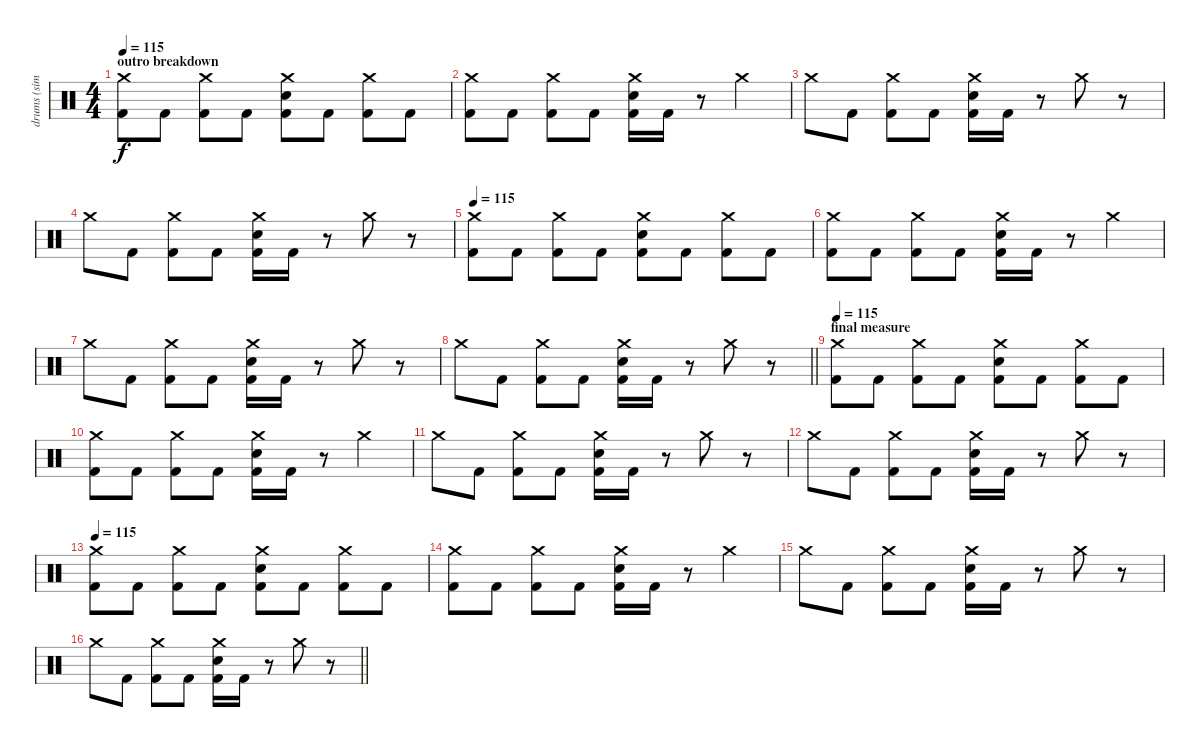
\track ("drums (simple)" "drums (sim") {instrument percussion}
\staff {score}
\articulation defaults
\ts (4 4)
\section ("" "outro breakdown")
\tempo 110
\tempo 115
\clef neutral
\ks c
("Crash medium (hit)" "Kick (hit) 2").8{dy f} "Kick (hit) 2".8 ("Crash medium (hit)" "Kick (hit) 2").8 "Kick (hit) 2".8 ("Crash medium (hit)" "Electric Snare (hit)" "Kick (hit) 2").8 "Kick (hit) 2".8 ("Crash medium (hit)" "Kick (hit) 2").8 "Kick (hit) 2".8 |
("Crash medium (hit)" "Kick (hit) 2").8 "Kick (hit) 2".8 ("Crash medium (hit)" "Kick (hit) 2").8 "Kick (hit) 2".8 ("Crash medium (hit)" "Electric Snare (hit)" "Kick (hit) 2").16 "Kick (hit) 2".16 r.8 "Crash medium (hit)".4 |
"Crash medium (hit)".8 "Kick (hit) 2".8 ("Crash medium (hit)" "Kick (hit) 2").8 "Kick (hit) 2".8 ("Crash medium (hit)" "Electric Snare (hit)" "Kick (hit) 2").16 "Kick (hit) 2".16 r.8 "Crash medium (hit)".8 r.8 |
"Crash medium (hit)".8 "Kick (hit) 2".8 ("Crash medium (hit)" "Kick (hit) 2").8 "Kick (hit) 2".8 ("Crash medium (hit)" "Electric Snare (hit)" "Kick (hit) 2").16 "Kick (hit) 2".16 r.8 "Crash medium (hit)".8 r.8 |
\tempo 115
("Crash medium (hit)" "Kick (hit) 2").8 "Kick (hit) 2".8 ("Crash medium (hit)" "Kick (hit) 2").8 "Kick (hit) 2".8 ("Crash medium (hit)" "Electric Snare (hit)" "Kick (hit) 2").8 "Kick (hit) 2".8 ("Crash medium (hit)" "Kick (hit) 2").8 "Kick (hit) 2".8 |
("Crash medium (hit)" "Kick (hit) 2").8 "Kick (hit) 2".8 ("Crash medium (hit)" "Kick (hit) 2").8 "Kick (hit) 2".8 ("Crash medium (hit)" "Electric Snare (hit)" "Kick (hit) 2").16 "Kick (hit) 2".16 r.8 "Crash medium (hit)".4 |
"Crash medium (hit)".8 "Kick (hit) 2".8 ("Crash medium (hit)" "Kick (hit) 2").8 "Kick (hit) 2".8 ("Crash medium (hit)" "Electric Snare (hit)" "Kick (hit) 2").16 "Kick (hit) 2".16 r.8 "Crash medium (hit)".8 r.8 |
\barLineRight lightlight "Crash medium (hit)".8 "Kick (hit) 2".8
("Crash medium (hit)" "Kick (hit) 2").8 "Kick (hit) 2".8 ("Crash medium (hit)" "Electric Snare (hit)" "Kick (hit) 2").16 "Kick (hit) 2".16 r.8 "Crash medium (hit)".8 r.8 |
\section ("" "final measure")
\tempo 110
\tempo 115
("Crash medium (hit)" "Kick (hit) 2").8 "Kick (hit) 2".8 ("Crash medium (hit)" "Kick (hit) 2").8 "Kick (hit) 2".8 ("Crash medium (hit)" "Electric Snare (hit)" "Kick (hit) 2").8 "Kick (hit) 2".8 ("Crash medium (hit)" "Kick (hit) 2").8 "Kick (hit) 2".8 |
("Crash medium (hit)" "Kick (hit) 2").8 "Kick (hit) 2".8 ("Crash medium (hit)" "Kick (hit) 2").8 "Kick (hit) 2".8 ("Crash medium (hit)" "Electric Snare (hit)" "Kick (hit) 2").16 "Kick (hit) 2".16 r.8 "Crash medium (hit)".4 |
"Crash medium (hit)".8 "Kick (hit) 2".8 ("Crash medium (hit)" "Kick (hit) 2").8 "Kick (hit) 2".8 ("Crash medium (hit)" "Electric Snare (hit)" "Kick (hit) 2").16 "Kick (hit) 2".16 r.8 "Crash medium (hit)".8 r.8 |
"Crash medium (hit)".8 "Kick (hit) 2".8 ("Crash medium (hit)" "Kick (hit) 2").8 "Kick (hit) 2".8 ("Crash medium (hit)" "Electric Snare (hit)" "Kick (hit) 2").16 "Kick (hit) 2".16 r.8 "Crash medium (hit)".8 r.8 |
\tempo 115
("Crash medium (hit)" "Kick (hit) 2").8 "Kick (hit) 2".8 ("Crash medium (hit)" "Kick (hit) 2").8 "Kick (hit) 2".8 ("Crash medium (hit)" "Electric Snare (hit)" "Kick (hit) 2").8 "Kick (hit) 2".8 ("Crash medium (hit)" "Kick (hit) 2").8 "Kick (hit) 2".8 |
("Crash medium (hit)" "Kick (hit) 2").8 "Kick (hit) 2".8 ("Crash medium (hit)" "Kick (hit) 2").8 "Kick (hit) 2".8 ("Crash medium (hit)" "Electric Snare (hit)" "Kick (hit) 2").16 "Kick (hit) 2".16 r.8 "Crash medium (hit)".4 |
"Crash medium (hit)".8 "Kick (hit) 2".8 ("Crash medium (hit)" "Kick (hit) 2").8 "Kick (hit) 2".8 ("Crash medium (hit)" "Electric Snare (hit)" "Kick (hit) 2").16 "Kick (hit) 2".16 r.8 "Crash medium (hit)".8 r.8 |
\barLineRight lightlight "Crash medium (hit)".8 "Kick (hit) 2".8
("Crash medium (hit)" "Kick (hit) 2").8 "Kick (hit) 2".8 ("Crash medium (hit)" "Electric Snare (hit)" "Kick (hit) 2").16 "Kick (hit) 2".16 r.8 "Crash medium (hit)".8 r.8
